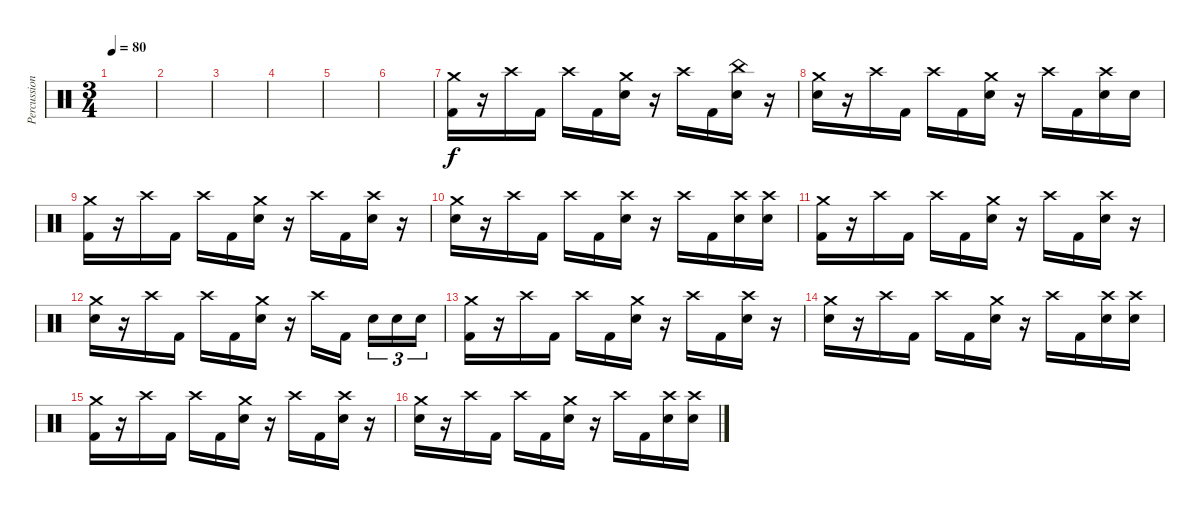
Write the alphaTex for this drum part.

\track ("Percussion" "Percussion") {instrument percussion}
\staff {score}
\articulation defaults
\ts (3 4)
\tempo 80
\clef neutral
\ks c
|
|
|
|
|
|
("Crash medium (hit)" "Kick (hit) 2").16 r.16 "Crash high (hit)".16 "Kick (hit) 2".16 "Crash high (hit)".16 "Kick (hit) 2".16 ("Crash medium (hit)" "Electric Snare (hit)").16 r.16 "Crash high (hit)".16 "Kick (hit) 2".16 ("China (hit)" "Electric Snare (hit)").16 r.16 |
("Crash medium (hit)" "Electric Snare (hit)").16 r.16 "Crash high (hit)".16 "Kick (hit) 2".16 "Crash high (hit)".16 "Kick (hit) 2".16 ("Crash medium (hit)" "Electric Snare (hit)").16 r.16 "Crash high (hit)".16 "Kick (hit) 2".16 ("Crash high (hit)" "Electric Snare (hit)").16 "Electric Snare (hit)".16 |
("Crash medium (hit)" "Kick (hit) 2").16 r.16 "Crash high (hit)".16 "Kick (hit) 2".16 "Crash high (hit)".16 "Kick (hit) 2".16 ("Crash medium (hit)" "Electric Snare (hit)").16 r.16 "Crash high (hit)".16 "Kick (hit) 2".16 ("Crash high (hit)" "Electric Snare (hit)").16 r.16 |
("Crash medium (hit)" "Electric Snare (hit)").16 r.16 "Crash high (hit)".16 "Kick (hit) 2".16 "Crash high (hit)".16 "Kick (hit) 2".16 ("Crash high (hit)" "Electric Snare (hit)").16 r.16 "Crash high (hit)".16 "Kick (hit) 2".16 ("Crash high (hit)" "Electric Snare (hit)").16 ("Crash high (hit)" "Electric Snare (hit)").16 |
("Crash medium (hit)" "Kick (hit) 2").16 r.16 "Crash high (hit)".16 "Kick (hit) 2".16 "Crash high (hit)".16 "Kick (hit) 2".16 ("Crash medium (hit)" "Electric Snare (hit)").16 r.16 "Crash high (hit)".16 "Kick (hit) 2".16 ("Crash high (hit)" "Electric Snare (hit)").16 r.16 |
("Crash medium (hit)" "Electric Snare (hit)").16 r.16 "Crash high (hit)".16 "Kick (hit) 2".16 "Crash high (hit)".16 "Kick (hit) 2".16 ("Crash medium (hit)" "Electric Snare (hit)").16 r.16 "Crash high (hit)".16 "Kick (hit) 2".16{beam splitsecondary} "Electric Snare (hit)".16{tu (3 2)} "Electric Snare (hit)".16{tu (3 2)} "Electric Snare (hit)".16{tu (3 2)} |
("Crash medium (hit)" "Kick (hit) 2").16 r.16 "Crash high (hit)".16 "Kick (hit) 2".16 "Crash high (hit)".16 "Kick (hit) 2".16 ("Crash medium (hit)" "Electric Snare (hit)").16 r.16 "Crash high (hit)".16 "Kick (hit) 2".16 ("Crash high (hit)" "Electric Snare (hit)").16 r.16 |
("Crash medium (hit)" "Electric Snare (hit)").16 r.16 "Crash high (hit)".16 "Kick (hit) 2".16 "Crash high (hit)".16 "Kick (hit) 2".16 ("Crash medium (hit)" "Electric Snare (hit)").16 r.16 "Crash high (hit)".16 "Kick (hit) 2".16 ("Crash high (hit)" "Electric Snare (hit)").16 ("Crash high (hit)" "Electric Snare (hit)").16 |
("Crash medium (hit)" "Kick (hit) 2").16 r.16 "Crash high (hit)".16 "Kick (hit) 2".16 "Crash high (hit)".16 "Kick (hit) 2".16 ("Crash medium (hit)" "Electric Snare (hit)").16 r.16 "Crash high (hit)".16 "Kick (hit) 2".16 ("Crash high (hit)" "Electric Snare (hit)").16 r.16 |
("Crash medium (hit)" "Electric Snare (hit)").16 r.16 "Crash high (hit)".16 "Kick (hit) 2".16 "Crash high (hit)".16 "Kick (hit) 2".16 ("Crash medium (hit)" "Electric Snare (hit)").16 r.16 "Crash high (hit)".16 "Kick (hit) 2".16 ("Crash high (hit)" "Electric Snare (hit)").16 ("Crash high (hit)" "Electric Snare (hit)").16
